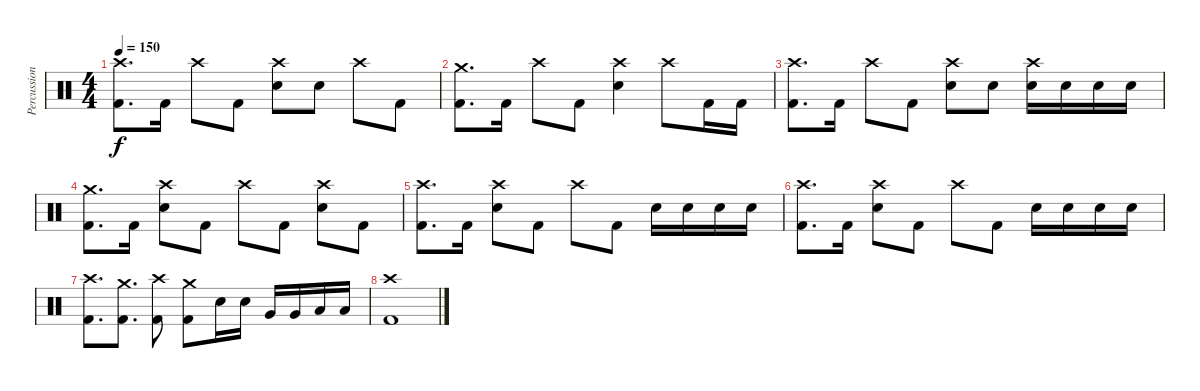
\track ("Percussion" "Percussion") {instrument percussion}
\staff {score}
\articulation defaults
\ts (4 4)
\tempo 150
\clef neutral
\ks c
("Crash high (hit)" "Kick (hit) 2").8{d dy f} "Kick (hit) 2".16 "Crash high (hit)".8 "Kick (hit) 2".8 ("Crash high (hit)" "Electric Snare (hit)").8 "Electric Snare (hit)".8 "Crash high (hit)".8 "Kick (hit) 2".8 |
("Crash medium (hit)" "Kick (hit) 2").8{d} "Kick (hit) 2".16 "Crash high (hit)".8 "Kick (hit) 2".8 ("Crash high (hit)" "Electric Snare (hit)").4 "Crash high (hit)".8 "Kick (hit) 2".16 "Kick (hit) 2".16 |
("Crash high (hit)" "Kick (hit) 2").8{d} "Kick (hit) 2".16 "Crash high (hit)".8 "Kick (hit) 2".8 ("Crash high (hit)" "Electric Snare (hit)").8 "Electric Snare (hit)".8 ("Crash high (hit)" "Electric Snare (hit)").16 "Electric Snare (hit)".16 "Electric Snare (hit)".16 "Electric Snare (hit)".16 |
("Crash medium (hit)" "Kick (hit) 2").8{d} "Kick (hit) 2".16 ("Crash high (hit)" "Electric Snare (hit)").8 "Kick (hit) 2".8 "Crash high (hit)".8 "Kick (hit) 2".8 ("Crash high (hit)" "Electric Snare (hit)").8 "Kick (hit) 2".8 |
("Crash high (hit)" "Kick (hit) 2").8{d} "Kick (hit) 2".16 ("Crash high (hit)" "Electric Snare (hit)").8 "Kick (hit) 2".8 "Crash high (hit)".8 "Kick (hit) 2".8 "Electric Snare (hit)".16 "Electric Snare (hit)".16 "Electric Snare (hit)".16 "Electric Snare (hit)".16 |
("Crash high (hit)" "Kick (hit) 2").8{d} "Kick (hit) 2".16 ("Crash high (hit)" "Electric Snare (hit)").8 "Kick (hit) 2".8 "Crash high (hit)".8 "Kick (hit) 2".8 "Electric Snare (hit)".16 "Electric Snare (hit)".16 "Electric Snare (hit)".16 "Electric Snare (hit)".16 |
("Crash high (hit)" "Kick (hit) 2").8{d} ("Crash medium (hit)" "Kick (hit) 2").8{d} ("Crash high (hit)" "Kick (hit) 2").8 ("Crash medium (hit)" "Kick (hit) 2").8 "Electric Snare (hit)".16 "Electric Snare (hit)".16 "Very Low Tom (hit)".16 "Very Low Tom (hit)".16 "Low Tom (hit)".16 "Low Tom (hit)".16 |
("Crash high (hit)" "Kick (hit) 2").1
